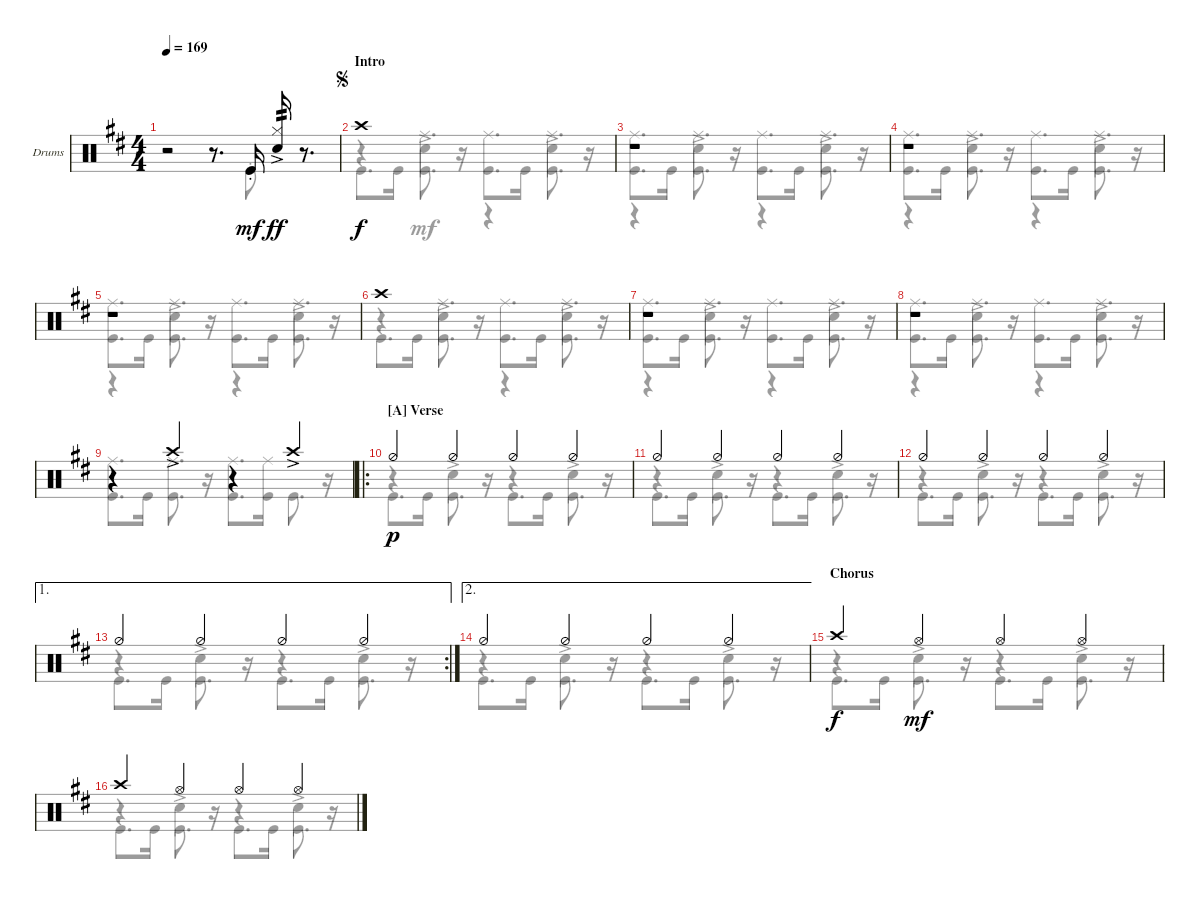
\defaultSystemsLayout 4
\bracketExtendMode groupsimilarinstruments
\firstSystemTrackNameOrientation horizontal
\otherSystemsTrackNameOrientation horizontal
\track ("Drumkit (Wolf Gemora)" "Drums") {instrument percussion}
\staff {score}
\articulation defaults
\voice
\ts (4 4)
\tempo 169
\clef neutral
\ks bminor
r.2{dy mf} r.8{d} "Kick (hit)"{st}.16 ("Snare (hit) 2"{ac} "Hi-Hat (closed)").16{tp 2 dy ff} r.8{d} |
\section ("" "Intro")
\jump segno "Crash high (hit)".1{dy f}
|
r.1 |
r.1 |
r.1 |
"Crash high (hit)".1 |
r.1 |
r.1 |
r.4 "Crash high (hit)"{ac}.4 r.4 "Crash high (hit)"{ac}.4 |
\ro
\section ("A" "Verse")
"Hi-Hat (half)".4{dy p} "Hi-Hat (half)".4 "Hi-Hat (half)".4 "Hi-Hat (half)".4 |
"Hi-Hat (half)".4 "Hi-Hat (half)".4 "Hi-Hat (half)".4 "Hi-Hat (half)".4 |
"Hi-Hat (half)".4 "Hi-Hat (half)".4 "Hi-Hat (half)".4 "Hi-Hat (half)".4 |
\ae 1
\rc 2 "Hi-Hat (half)".4 "Hi-Hat (half)".4 "Hi-Hat (half)".4 "Hi-Hat (half)".4
|
\ae 2 "Hi-Hat (half)".4 "Hi-Hat (half)".4 "Hi-Hat (half)".4 "Hi-Hat (half)".4
|
\section ("" "Chorus")
"Crash high (hit)".4{dy f} "Hi-Hat (open)".4{dy mf} "Hi-Hat (open)".4 "Hi-Hat (open)".4 |
"Crash high (hit)".4 "Hi-Hat (open)".4 "Hi-Hat (open)".4 "Hi-Hat (open)".4
\voice
\clef neutral
\ottava regular
\simile none
\ks bminor
r.2{dy mf} r.8{d} "Kick (hit)"{st}.8 r.8{d} |
"Kick (hit)".8{d} "Kick (hit)".16 ("Kick (hit)" "Ride (middle)").8{d} r.16 ("Kick (hit)" "Ride (middle)").8{d} "Kick (hit)".16 ("Kick (hit)" "Ride (middle)").8{d} r.16 |
("Kick (hit)" "Ride (middle)").8{d} "Kick (hit)".16 ("Kick (hit)" "Ride (middle)").8{d} r.16 ("Kick (hit)" "Ride (middle)").8{d} "Kick (hit)".16 ("Kick (hit)" "Ride (middle)").8{d} r.16 |
("Kick (hit)" "Ride (middle)").8{d} "Kick (hit)".16 ("Kick (hit)" "Ride (middle)").8{d} r.16 ("Kick (hit)" "Ride (middle)").8{d} "Kick (hit)".16 ("Kick (hit)" "Ride (middle)").8{d} r.16 |
("Kick (hit)" "Ride (middle)").8{d} "Kick (hit)".16 ("Kick (hit)" "Ride (middle)").8{d} r.16 ("Kick (hit)" "Ride (middle)").8{d} "Kick (hit)".16 ("Kick (hit)" "Ride (middle)").8{d} r.16 |
"Kick (hit)".8{d} "Kick (hit)".16 ("Kick (hit)" "Ride (middle)").8{d} r.16 ("Kick (hit)" "Ride (middle)").8{d} "Kick (hit)".16 ("Kick (hit)" "Ride (middle)").8{d} r.16 |
("Kick (hit)" "Ride (middle)").8{d} "Kick (hit)".16 ("Kick (hit)" "Ride (middle)").8{d} r.16 ("Kick (hit)" "Ride (middle)").8{d} "Kick (hit)".16 ("Kick (hit)" "Ride (middle)").8{d} r.16 |
("Kick (hit)" "Ride (middle)").8{d} "Kick (hit)".16 ("Kick (hit)" "Ride (middle)").8{d} r.16 ("Kick (hit)" "Ride (middle)").8{d} "Kick (hit)".16 ("Kick (hit)" "Ride (middle)").8{d} r.16 |
("Kick (hit)" "Ride (middle)").8{d} "Kick (hit)".16 ("Kick (hit)" "Ride (middle)").8{d} r.16 ("Kick (hit)" "Ride (middle)").8{d} ("Kick (hit)" "Ride (middle)").16 "Kick (hit)".8{d} r.16 |
"Kick (hit)".8{d} "Kick (hit)".16 "Kick (hit)".8{d} r.16 "Kick (hit)".8{d} "Kick (hit)".16 "Kick (hit)".8{d} r.16 |
"Kick (hit)".8{d} "Kick (hit)".16 "Kick (hit)".8{d} r.16 "Kick (hit)".8{d} "Kick (hit)".16 "Kick (hit)".8{d} r.16 |
"Kick (hit)".8{d} "Kick (hit)".16 "Kick (hit)".8{d} r.16 "Kick (hit)".8{d} "Kick (hit)".16 "Kick (hit)".8{d} r.16 |
"Kick (hit)".8{d} "Kick (hit)".16 "Kick (hit)".8{d} r.16 "Kick (hit)".8{d} "Kick (hit)".16 "Kick (hit)".8{d} r.16 |
"Kick (hit)".8{d} "Kick (hit)".16 "Kick (hit)".8{d} r.16 "Kick (hit)".8{d} "Kick (hit)".16 "Kick (hit)".8{d} r.16 |
"Kick (hit)".8{d} "Kick (hit)".16 "Kick (hit)".8{d} r.16 "Kick (hit)".8{d} "Kick (hit)".16 "Kick (hit)".8{d} r.16 |
"Kick (hit)".8{d} "Kick (hit)".16 "Kick (hit)".8{d} r.16 "Kick (hit)".8{d} "Kick (hit)".16 "Kick (hit)".8{d} r.16
\voice
\clef neutral
\ottava regular
\simile none
\ks bminor
|
r.4 "Snare (hit) 2"{ac}.4 r.4 "Snare (hit) 2"{ac}.4 |
r.4 "Snare (hit) 2"{ac}.4 r.4 "Snare (hit) 2"{ac}.4 |
r.4 "Snare (hit) 2"{ac}.4 r.4 "Snare (hit) 2"{ac}.4 |
r.4 "Snare (hit) 2"{ac}.4 r.4 "Snare (hit) 2"{ac}.4 |
r.4 "Snare (hit) 2"{ac}.4 r.4 "Snare (hit) 2"{ac}.4 |
r.4 "Snare (hit) 2"{ac}.4 r.4 "Snare (hit) 2"{ac}.4 |
r.4 "Snare (hit) 2"{ac}.4 r.4 "Snare (hit) 2"{ac}.4 |
|
r.4 "Snare (hit) 2"{ac}.4 r.4 "Snare (hit) 2"{ac}.4 |
r.4 "Snare (hit) 2"{ac}.4 r.4 "Snare (hit) 2"{ac}.4 |
r.4 "Snare (hit) 2"{ac}.4 r.4 "Snare (hit) 2"{ac}.4 |
r.4 "Snare (hit) 2"{ac}.4 r.4 "Snare (hit) 2"{ac}.4 |
r.4 "Snare (hit) 2"{ac}.4 r.4 "Snare (hit) 2"{ac}.4 |
r.4 "Snare (hit) 2"{ac}.4 r.4 "Snare (hit) 2"{ac}.4 |
r.4 "Snare (hit) 2"{ac}.4 r.4 "Snare (hit) 2"{ac}.4
